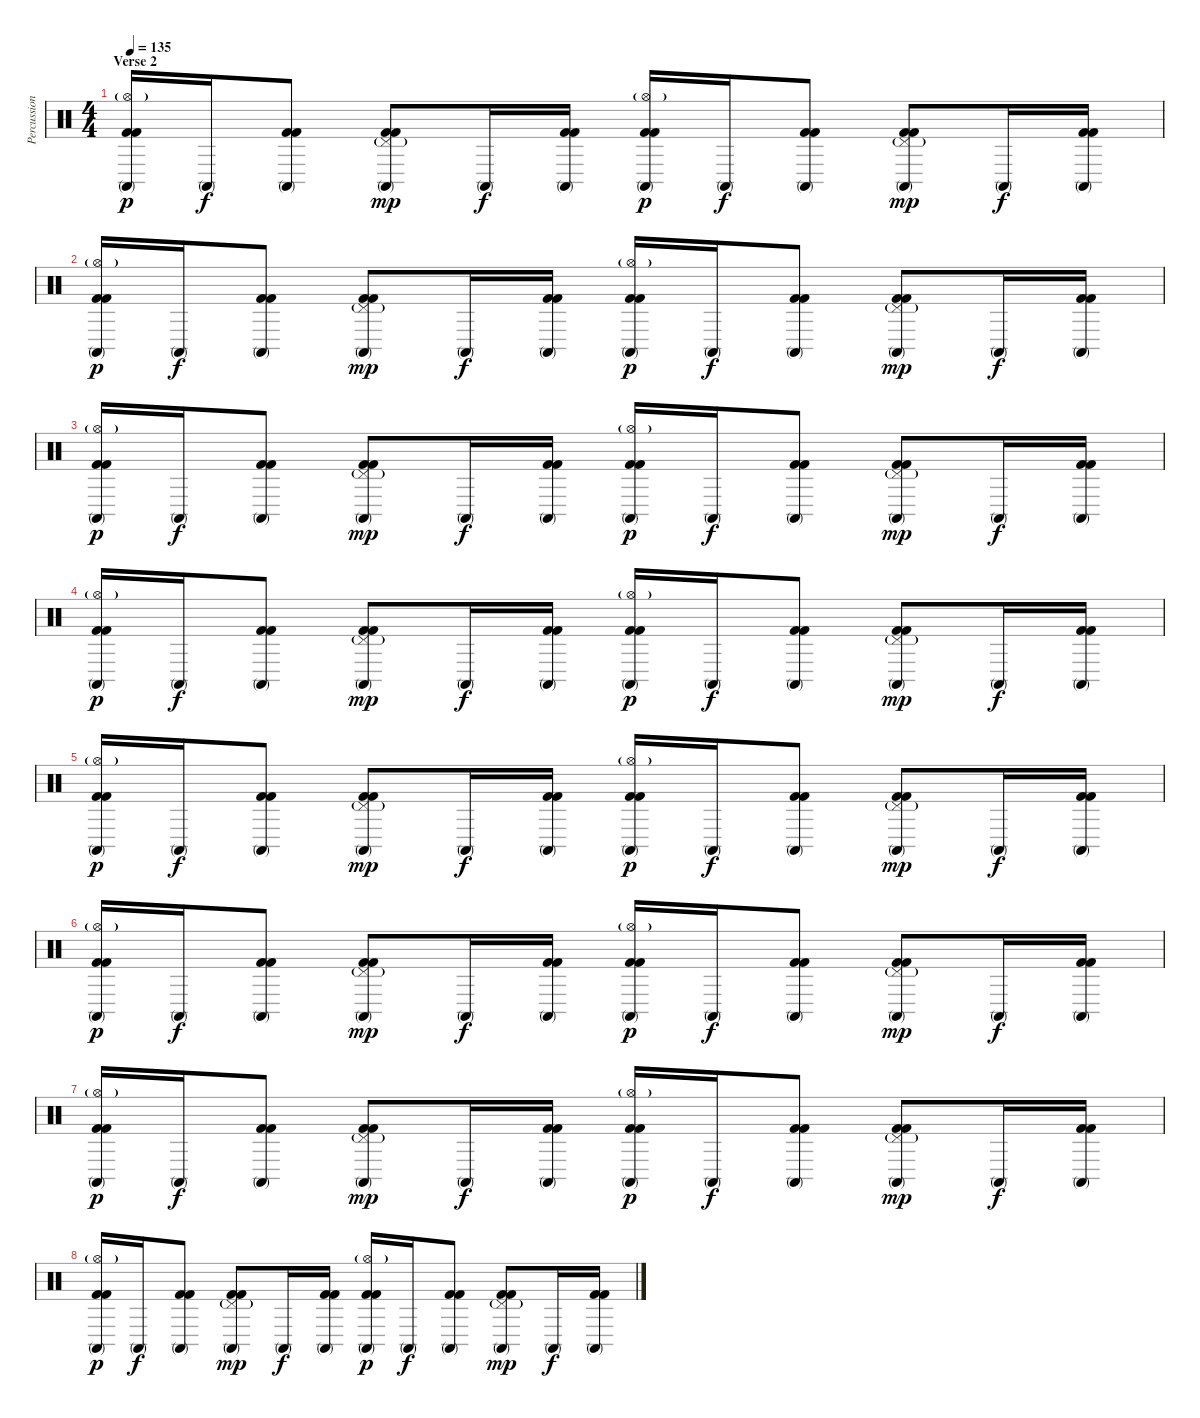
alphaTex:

\track ("Percussion" "Percussion") {instrument percussion}
\staff {score}
\articulation defaults
\ts (4 4)
\section ("" "Verse 2")
\tempo 135
\clef neutral
\ks c
("Conga high (mute)" "Hi-Hat (open)"{g} "Kick (hit) 2" "Kick (hit) 2").16{dy p} "Conga high (mute)".16{dy f} ("Conga high (mute)" "Kick (hit) 2" "Kick (hit) 2").8 ("Conga high (mute)" "Pedal Hi-Hat (hit)"{g} "Kick (hit) 2" "Kick (hit) 2").8{dy mp} "Conga high (mute)".16{dy f} ("Conga high (mute)" "Kick (hit) 2" "Kick (hit) 2").16 ("Conga high (mute)" "Hi-Hat (open)"{g} "Kick (hit) 2" "Kick (hit) 2").16{dy p} "Conga high (mute)".16{dy f} ("Conga high (mute)" "Kick (hit) 2" "Kick (hit) 2").8 ("Conga high (mute)" "Pedal Hi-Hat (hit)"{g} "Kick (hit) 2" "Kick (hit) 2").8{dy mp} "Conga high (mute)".16{dy f} ("Conga high (mute)" "Kick (hit) 2" "Kick (hit) 2").16 |
("Conga high (mute)" "Hi-Hat (open)"{g} "Kick (hit) 2" "Kick (hit) 2").16{dy p} "Conga high (mute)".16{dy f} ("Conga high (mute)" "Kick (hit) 2" "Kick (hit) 2").8 ("Conga high (mute)" "Pedal Hi-Hat (hit)"{g} "Kick (hit) 2" "Kick (hit) 2").8{dy mp} "Conga high (mute)".16{dy f} ("Conga high (mute)" "Kick (hit) 2" "Kick (hit) 2").16 ("Conga high (mute)" "Hi-Hat (open)"{g} "Kick (hit) 2" "Kick (hit) 2").16{dy p} "Conga high (mute)".16{dy f} ("Conga high (mute)" "Kick (hit) 2" "Kick (hit) 2").8 ("Conga high (mute)" "Pedal Hi-Hat (hit)"{g} "Kick (hit) 2" "Kick (hit) 2").8{dy mp} "Conga high (mute)".16{dy f} ("Conga high (mute)" "Kick (hit) 2" "Kick (hit) 2").16 |
("Conga high (mute)" "Hi-Hat (open)"{g} "Kick (hit) 2" "Kick (hit) 2").16{dy p} "Conga high (mute)".16{dy f} ("Conga high (mute)" "Kick (hit) 2" "Kick (hit) 2").8 ("Conga high (mute)" "Pedal Hi-Hat (hit)"{g} "Kick (hit) 2" "Kick (hit) 2").8{dy mp} "Conga high (mute)".16{dy f} ("Conga high (mute)" "Kick (hit) 2" "Kick (hit) 2").16 ("Conga high (mute)" "Hi-Hat (open)"{g} "Kick (hit) 2" "Kick (hit) 2").16{dy p} "Conga high (mute)".16{dy f} ("Conga high (mute)" "Kick (hit) 2" "Kick (hit) 2").8 ("Conga high (mute)" "Pedal Hi-Hat (hit)"{g} "Kick (hit) 2" "Kick (hit) 2").8{dy mp} "Conga high (mute)".16{dy f} ("Conga high (mute)" "Kick (hit) 2" "Kick (hit) 2").16 |
("Conga high (mute)" "Hi-Hat (open)"{g} "Kick (hit) 2" "Kick (hit) 2").16{dy p} "Conga high (mute)".16{dy f} ("Conga high (mute)" "Kick (hit) 2" "Kick (hit) 2").8 ("Conga high (mute)" "Pedal Hi-Hat (hit)"{g} "Kick (hit) 2" "Kick (hit) 2").8{dy mp} "Conga high (mute)".16{dy f} ("Conga high (mute)" "Kick (hit) 2" "Kick (hit) 2").16 ("Conga high (mute)" "Hi-Hat (open)"{g} "Kick (hit) 2" "Kick (hit) 2").16{dy p} "Conga high (mute)".16{dy f} ("Conga high (mute)" "Kick (hit) 2" "Kick (hit) 2").8 ("Conga high (mute)" "Pedal Hi-Hat (hit)"{g} "Kick (hit) 2" "Kick (hit) 2").8{dy mp} "Conga high (mute)".16{dy f} ("Conga high (mute)" "Kick (hit) 2" "Kick (hit) 2").16 |
("Conga high (mute)" "Hi-Hat (open)"{g} "Kick (hit) 2" "Kick (hit) 2").16{dy p} "Conga high (mute)".16{dy f} ("Conga high (mute)" "Kick (hit) 2" "Kick (hit) 2").8 ("Conga high (mute)" "Pedal Hi-Hat (hit)"{g} "Kick (hit) 2" "Kick (hit) 2").8{dy mp} "Conga high (mute)".16{dy f} ("Conga high (mute)" "Kick (hit) 2" "Kick (hit) 2").16 ("Conga high (mute)" "Hi-Hat (open)"{g} "Kick (hit) 2" "Kick (hit) 2").16{dy p} "Conga high (mute)".16{dy f} ("Conga high (mute)" "Kick (hit) 2" "Kick (hit) 2").8 ("Conga high (mute)" "Pedal Hi-Hat (hit)"{g} "Kick (hit) 2" "Kick (hit) 2").8{dy mp} "Conga high (mute)".16{dy f} ("Conga high (mute)" "Kick (hit) 2" "Kick (hit) 2").16 |
("Conga high (mute)" "Hi-Hat (open)"{g} "Kick (hit) 2" "Kick (hit) 2").16{dy p} "Conga high (mute)".16{dy f} ("Conga high (mute)" "Kick (hit) 2" "Kick (hit) 2").8 ("Conga high (mute)" "Pedal Hi-Hat (hit)"{g} "Kick (hit) 2" "Kick (hit) 2").8{dy mp} "Conga high (mute)".16{dy f} ("Conga high (mute)" "Kick (hit) 2" "Kick (hit) 2").16 ("Conga high (mute)" "Hi-Hat (open)"{g} "Kick (hit) 2" "Kick (hit) 2").16{dy p} "Conga high (mute)".16{dy f} ("Conga high (mute)" "Kick (hit) 2" "Kick (hit) 2").8 ("Conga high (mute)" "Pedal Hi-Hat (hit)"{g} "Kick (hit) 2" "Kick (hit) 2").8{dy mp} "Conga high (mute)".16{dy f} ("Conga high (mute)" "Kick (hit) 2" "Kick (hit) 2").16 |
("Conga high (mute)" "Hi-Hat (open)"{g} "Kick (hit) 2" "Kick (hit) 2").16{dy p} "Conga high (mute)".16{dy f} ("Conga high (mute)" "Kick (hit) 2" "Kick (hit) 2").8 ("Conga high (mute)" "Pedal Hi-Hat (hit)"{g} "Kick (hit) 2" "Kick (hit) 2").8{dy mp} "Conga high (mute)".16{dy f} ("Conga high (mute)" "Kick (hit) 2" "Kick (hit) 2").16 ("Conga high (mute)" "Hi-Hat (open)"{g} "Kick (hit) 2" "Kick (hit) 2").16{dy p} "Conga high (mute)".16{dy f} ("Conga high (mute)" "Kick (hit) 2" "Kick (hit) 2").8 ("Conga high (mute)" "Pedal Hi-Hat (hit)"{g} "Kick (hit) 2" "Kick (hit) 2").8{dy mp} "Conga high (mute)".16{dy f} ("Conga high (mute)" "Kick (hit) 2" "Kick (hit) 2").16 |
("Conga high (mute)" "Hi-Hat (open)"{g} "Kick (hit) 2" "Kick (hit) 2").16{dy p} "Conga high (mute)".16{dy f} ("Conga high (mute)" "Kick (hit) 2" "Kick (hit) 2").8 ("Conga high (mute)" "Pedal Hi-Hat (hit)"{g} "Kick (hit) 2" "Kick (hit) 2").8{dy mp} "Conga high (mute)".16{dy f} ("Conga high (mute)" "Kick (hit) 2" "Kick (hit) 2").16 ("Conga high (mute)" "Hi-Hat (open)"{g} "Kick (hit) 2" "Kick (hit) 2").16{dy p} "Conga high (mute)".16{dy f} ("Conga high (mute)" "Kick (hit) 2" "Kick (hit) 2").8 ("Conga high (mute)" "Pedal Hi-Hat (hit)"{g} "Kick (hit) 2" "Kick (hit) 2").8{dy mp} "Conga high (mute)".16{dy f} ("Conga high (mute)" "Kick (hit) 2" "Kick (hit) 2").16
